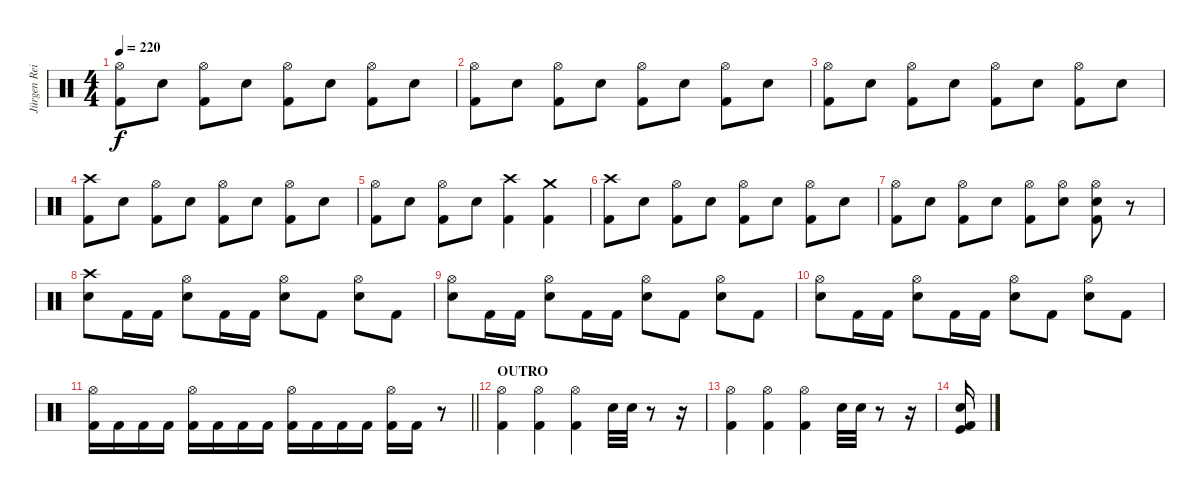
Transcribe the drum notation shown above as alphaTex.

\track ("Jürgen Reil" "Jürgen Rei") {instrument percussion}
\staff {score}
\articulation defaults
\ts (4 4)
\tempo 220
\clef neutral
\ks c
("Hi-Hat (open)" "Kick (hit) 2").8{dy f} "Electric Snare (hit)".8 ("Hi-Hat (open)" "Kick (hit) 2").8 "Electric Snare (hit)".8 ("Hi-Hat (open)" "Kick (hit) 2").8 "Electric Snare (hit)".8 ("Hi-Hat (open)" "Kick (hit) 2").8 "Electric Snare (hit)".8 |
("Hi-Hat (open)" "Kick (hit) 2").8 "Electric Snare (hit)".8 ("Hi-Hat (open)" "Kick (hit) 2").8 "Electric Snare (hit)".8 ("Hi-Hat (open)" "Kick (hit) 2").8 "Electric Snare (hit)".8 ("Hi-Hat (open)" "Kick (hit) 2").8 "Electric Snare (hit)".8 |
("Hi-Hat (open)" "Kick (hit) 2").8 "Electric Snare (hit)".8 ("Hi-Hat (open)" "Kick (hit) 2").8 "Electric Snare (hit)".8 ("Hi-Hat (open)" "Kick (hit) 2").8 "Electric Snare (hit)".8 ("Hi-Hat (open)" "Kick (hit) 2").8 "Electric Snare (hit)".8 |
("Crash high (hit)" "Kick (hit) 2").8 "Electric Snare (hit)".8 ("Hi-Hat (open)" "Kick (hit) 2").8 "Electric Snare (hit)".8 ("Hi-Hat (open)" "Kick (hit) 2").8 "Electric Snare (hit)".8 ("Hi-Hat (open)" "Kick (hit) 2").8 "Electric Snare (hit)".8 |
("Hi-Hat (open)" "Kick (hit) 2").8 "Electric Snare (hit)".8 ("Hi-Hat (open)" "Kick (hit) 2").8 "Electric Snare (hit)".8 ("Crash high (hit)" "Kick (hit) 2").4 ("Crash medium (hit)" "Kick (hit) 2").4 |
("Crash high (hit)" "Kick (hit) 2").8 "Electric Snare (hit)".8 ("Hi-Hat (open)" "Kick (hit) 2").8 "Electric Snare (hit)".8 ("Hi-Hat (open)" "Kick (hit) 2").8 "Electric Snare (hit)".8 ("Hi-Hat (open)" "Kick (hit) 2").8 "Electric Snare (hit)".8 |
("Hi-Hat (open)" "Kick (hit) 2").8 "Electric Snare (hit)".8 ("Hi-Hat (open)" "Kick (hit) 2").8 "Electric Snare (hit)".8 ("Hi-Hat (open)" "Kick (hit) 2").8 ("Hi-Hat (open)" "Electric Snare (hit)").8 ("Hi-Hat (open)" "Electric Snare (hit)" "Kick (hit) 2").8 r.8 |
("Crash high (hit)" "Electric Snare (hit)").8 "Kick (hit) 2".16 "Kick (hit) 2".16 ("Hi-Hat (open)" "Electric Snare (hit)").8 "Kick (hit) 2".16 "Kick (hit) 2".16 ("Hi-Hat (open)" "Electric Snare (hit)").8 "Kick (hit) 2".8 ("Hi-Hat (open)" "Electric Snare (hit)").8 "Kick (hit) 2".8 |
("Hi-Hat (open)" "Electric Snare (hit)").8 "Kick (hit) 2".16 "Kick (hit) 2".16 ("Hi-Hat (open)" "Electric Snare (hit)").8 "Kick (hit) 2".16 "Kick (hit) 2".16 ("Hi-Hat (open)" "Electric Snare (hit)").8 "Kick (hit) 2".8 ("Hi-Hat (open)" "Electric Snare (hit)").8 "Kick (hit) 2".8 |
("Hi-Hat (open)" "Electric Snare (hit)").8 "Kick (hit) 2".16 "Kick (hit) 2".16 ("Hi-Hat (open)" "Electric Snare (hit)").8 "Kick (hit) 2".16 "Kick (hit) 2".16 ("Hi-Hat (open)" "Electric Snare (hit)").8 "Kick (hit) 2".8 ("Hi-Hat (open)" "Electric Snare (hit)").8 "Kick (hit) 2".8 |
\barLineRight lightlight
("Hi-Hat (open)" "Kick (hit) 2").16 "Kick (hit) 2".16 "Kick (hit) 2".16 "Kick (hit) 2".16 ("Hi-Hat (open)" "Kick (hit) 2").16 "Kick (hit) 2".16 "Kick (hit) 2".16 "Kick (hit) 2".16 ("Hi-Hat (open)" "Kick (hit) 2").16 "Kick (hit) 2".16 "Kick (hit) 2".16 "Kick (hit) 2".16 ("Hi-Hat (open)" "Kick (hit) 2").16 "Kick (hit) 2".16 r.8 |
\section ("" "OUTRO")
("Hi-Hat (open)" "Kick (hit) 2").4 ("Hi-Hat (open)" "Kick (hit) 2").4 ("Hi-Hat (open)" "Kick (hit) 2").4 "Electric Snare (hit)".32 "Electric Snare (hit)".32 r.8 r.16 |
("Hi-Hat (open)" "Kick (hit) 2").4 ("Hi-Hat (open)" "Kick (hit) 2").4 ("Hi-Hat (open)" "Kick (hit) 2").4 "Electric Snare (hit)".32 "Electric Snare (hit)".32 r.8 r.16 |
("Snare (hit)" "Kick (hit)" "Kick (hit) 2").16
